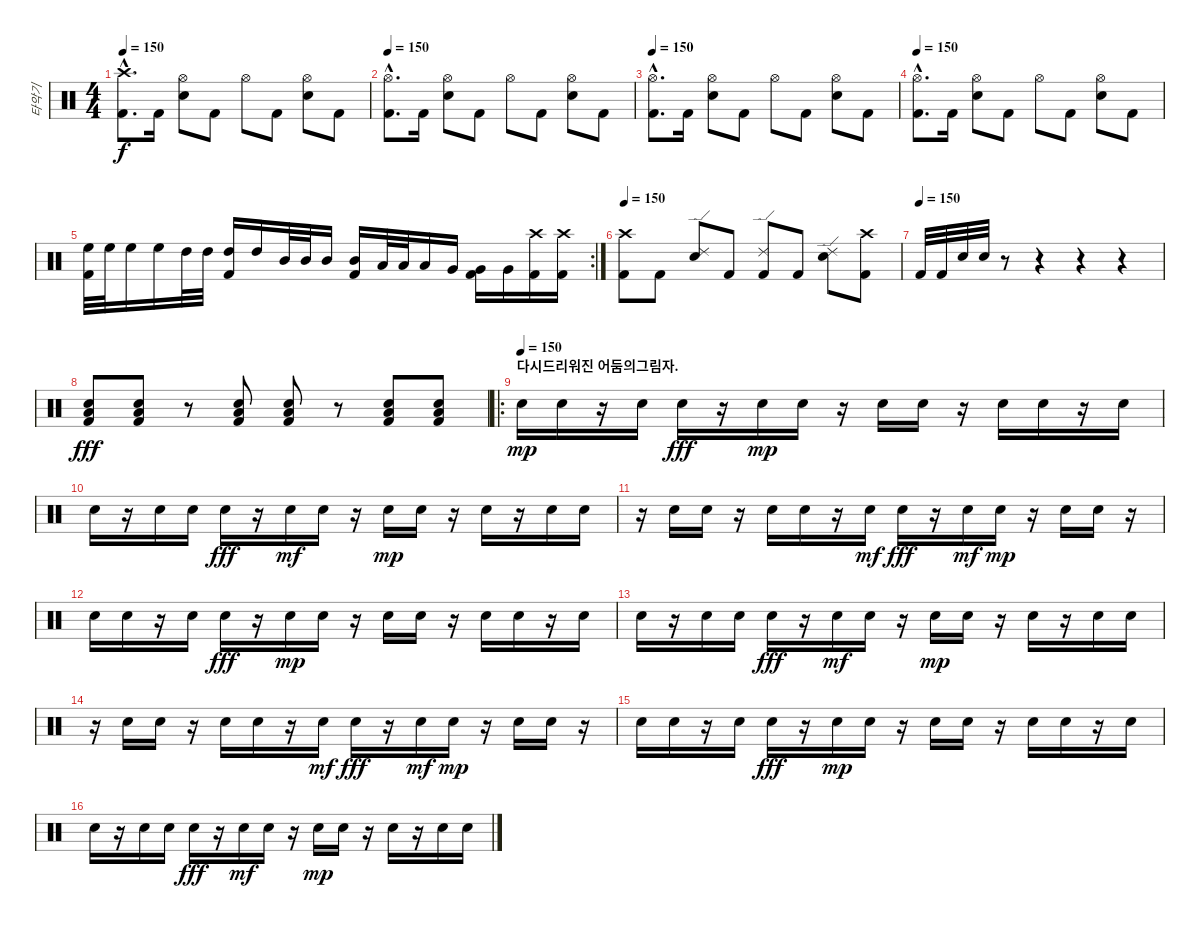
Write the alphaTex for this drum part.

\track ("타악기" "타악기") {instrument percussion}
\staff {score}
\articulation defaults
\ts (4 4)
\tempo 150
\clef neutral
\ks c
("Crash high (hit)"{hac} "Kick (hit) 2"{hac}).8{d dy f} "Kick (hit) 2".16 ("Hi-Hat (open)" "Snare (hit) 2").8 "Kick (hit) 2".8 "Hi-Hat (open)".8 "Kick (hit) 2".8 ("Hi-Hat (open)" "Snare (hit) 2").8 "Kick (hit) 2".8 |
\tempo 150
("Hi-Hat (open)"{hac} "Kick (hit) 2"{hac}).8{d} "Kick (hit) 2".16 ("Hi-Hat (open)" "Snare (hit) 2").8 "Kick (hit) 2".8 "Hi-Hat (open)".8 "Kick (hit) 2".8 ("Hi-Hat (open)" "Snare (hit) 2").8 "Kick (hit) 2".8 |
\tempo 150
("Hi-Hat (open)"{hac} "Kick (hit) 2"{hac}).8{d} "Kick (hit) 2".16 ("Hi-Hat (open)" "Snare (hit) 2").8 "Kick (hit) 2".8 "Hi-Hat (open)".8 "Kick (hit) 2".8 ("Hi-Hat (open)" "Snare (hit) 2").8 "Kick (hit) 2".8 |
\tempo 150
("Hi-Hat (open)"{hac} "Kick (hit) 2"{hac}).8{d} "Kick (hit) 2".16 ("Hi-Hat (open)" "Snare (hit) 2").8 "Kick (hit) 2".8 "Hi-Hat (open)".8 "Kick (hit) 2".8 ("Hi-Hat (open)" "Snare (hit) 2").8 "Kick (hit) 2".8 |
\rc 2
("High Floor Tom (hit)" "Kick (hit) 2").32 "High Floor Tom (hit)".32 "High Floor Tom (hit)".16 "High Floor Tom (hit)".16 "High Tom (hit)".32 "High Tom (hit)".32 ("High Tom (hit)" "Kick (hit) 2").16 "High Tom (hit)".16 "Mid Tom (hit)".32 "Mid Tom (hit)".32 "Mid Tom (hit)".16 ("Mid Tom (hit)" "Kick (hit) 2").16 "Low Tom (hit)".32 "Low Tom (hit)".32 "Low Tom (hit)".16 "Very Low Tom (hit)".16 ("Very Low Tom (hit)" "Kick (hit) 2").16 "Very Low Tom (hit)".16 ("Crash high (hit)" "Kick (hit) 2").16 ("Crash high (hit)" "Kick (hit) 2").16 |
\tempo 150
("Kick (hit) 2" "Crash high (hit)").8 "Kick (hit) 2".8 ("Snare (hit) 2" "Ride (edge) 2").8 "Kick (hit) 2".8 ("Kick (hit) 2" "Ride (edge) 2").8 "Kick (hit) 2".8 ("Snare (hit) 2" "Ride (edge) 2").8 ("Kick (hit) 2" "Crash high (hit)").8 |
\tempo (150)
"Kick (hit) 2".32 "Kick (hit) 2".32 "Snare (hit) 2".32 "Snare (hit) 2".32 r.8 r.4 r.4 r.4 |
("Low Floor Tom (hit)" "Electric Snare (hit)" "Kick (hit) 2").8{dy fff} ("Low Floor Tom (hit)" "Kick (hit) 2" "Snare (hit) 2").8 r.8 ("Kick (hit) 2" "Low Floor Tom (hit)" "Snare (hit) 2").8 ("Low Floor Tom (hit)" "Snare (hit) 2" "Kick (hit) 2").8 r.8 ("Kick (hit) 2" "Snare (hit) 2" "Low Floor Tom (hit)").8 ("Low Floor Tom (hit)" "Snare (hit) 2" "Kick (hit) 2").8 |
\ro
\section ("" "다시드리워진 어둠의그림자.")
\tempo (150)
"Snare (hit) 2".16{dy mp} "Snare (hit) 2".16 r.16 "Snare (hit) 2".16 "Snare (hit) 2".16{dy fff} r.16 "Snare (hit) 2".16{dy mp} "Snare (hit) 2".16 r.16 "Snare (hit) 2".16 "Snare (hit) 2".16 r.16 "Snare (hit) 2".16 "Snare (hit) 2".16 r.16 "Snare (hit) 2".16 |
"Snare (hit) 2".16 r.16 "Snare (hit) 2".16 "Snare (hit) 2".16 "Snare (hit) 2".16{dy fff} r.16 "Snare (hit) 2".16{dy mf} "Snare (hit) 2".16 r.16 "Snare (hit) 2".16{dy mp} "Snare (hit) 2".16 r.16 "Snare (hit) 2".16 r.16 "Snare (hit) 2".16 "Snare (hit) 2".16 |
r.16 "Snare (hit) 2".16 "Snare (hit) 2".16 r.16 "Snare (hit) 2".16 "Snare (hit) 2".16 r.16 "Snare (hit) 2".16{dy mf} "Snare (hit) 2".16{dy fff} r.16 "Snare (hit) 2".16{dy mf} "Snare (hit) 2".16{dy mp} r.16 "Snare (hit) 2".16 "Snare (hit) 2".16 r.16 |
"Snare (hit) 2".16 "Snare (hit) 2".16 r.16 "Snare (hit) 2".16 "Snare (hit) 2".16{dy fff} r.16 "Snare (hit) 2".16{dy mp} "Snare (hit) 2".16 r.16 "Snare (hit) 2".16 "Snare (hit) 2".16 r.16 "Snare (hit) 2".16 "Snare (hit) 2".16 r.16 "Snare (hit) 2".16 |
"Snare (hit) 2".16 r.16 "Snare (hit) 2".16 "Snare (hit) 2".16 "Snare (hit) 2".16{dy fff} r.16 "Snare (hit) 2".16{dy mf} "Snare (hit) 2".16 r.16 "Snare (hit) 2".16{dy mp} "Snare (hit) 2".16 r.16 "Snare (hit) 2".16 r.16 "Snare (hit) 2".16 "Snare (hit) 2".16 |
r.16 "Snare (hit) 2".16 "Snare (hit) 2".16 r.16 "Snare (hit) 2".16 "Snare (hit) 2".16 r.16 "Snare (hit) 2".16{dy mf} "Snare (hit) 2".16{dy fff} r.16 "Snare (hit) 2".16{dy mf} "Snare (hit) 2".16{dy mp} r.16 "Snare (hit) 2".16 "Snare (hit) 2".16 r.16 |
"Snare (hit) 2".16 "Snare (hit) 2".16 r.16 "Snare (hit) 2".16 "Snare (hit) 2".16{dy fff} r.16 "Snare (hit) 2".16{dy mp} "Snare (hit) 2".16 r.16 "Snare (hit) 2".16 "Snare (hit) 2".16 r.16 "Snare (hit) 2".16 "Snare (hit) 2".16 r.16 "Snare (hit) 2".16 |
"Snare (hit) 2".16 r.16 "Snare (hit) 2".16 "Snare (hit) 2".16 "Snare (hit) 2".16{dy fff} r.16 "Snare (hit) 2".16{dy mf} "Snare (hit) 2".16 r.16 "Snare (hit) 2".16{dy mp} "Snare (hit) 2".16 r.16 "Snare (hit) 2".16 r.16 "Snare (hit) 2".16 "Snare (hit) 2".16
